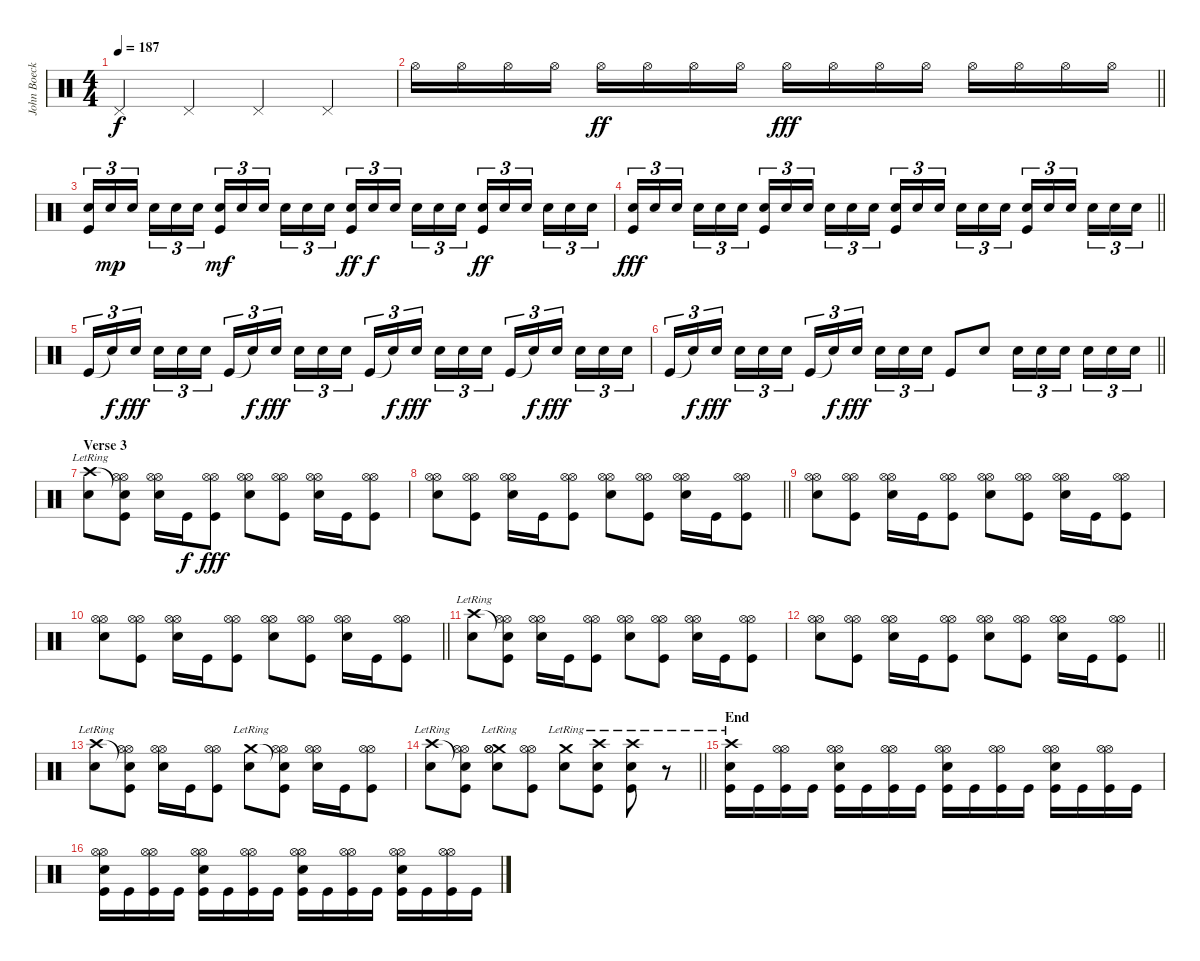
\track ("John Boecklin - Drums" "John Boeck") {instrument percussion}
\staff {score}
\articulation defaults
\ts (4 4)
\tempo 187
\clef neutral
\ks c "Pedal Hi-Hat (hit)".4{dy f} "Pedal Hi-Hat (hit)".4 "Pedal Hi-Hat (hit)".4 "Pedal Hi-Hat (hit)".4
|
\barLineRight lightlight "Hi-Hat (open)".16 "Hi-Hat (open)".16 "Hi-Hat (open)".16 "Hi-Hat (open)".16 "Hi-Hat (open)".16{dy ff} "Hi-Hat (open)".16 "Hi-Hat (open)".16 "Hi-Hat (open)".16 "Hi-Hat (open)".16{dy fff} "Hi-Hat (open)".16 "Hi-Hat (open)".16 "Hi-Hat (open)".16 "Hi-Hat (open)".16 "Hi-Hat (open)".16 "Hi-Hat (open)".16 "Hi-Hat (open)".16
|
("Snare (hit) 2" "Kick (hit)").16{tu (3 2)} "Snare (hit) 2".16{tu (3 2) dy mp} "Snare (hit) 2".16{tu (3 2)} "Snare (hit) 2".16{tu (3 2)} "Snare (hit) 2".16{tu (3 2)} "Snare (hit) 2".16{tu (3 2)} ("Snare (hit) 2" "Kick (hit)").16{tu (3 2) dy mf} "Snare (hit) 2".16{tu (3 2)} "Snare (hit) 2".16{tu (3 2)} "Snare (hit) 2".16{tu (3 2)} "Snare (hit) 2".16{tu (3 2)} "Snare (hit) 2".16{tu (3 2)} ("Snare (hit) 2" "Kick (hit)").16{tu (3 2) dy ff} "Snare (hit) 2".16{tu (3 2) dy f} "Snare (hit) 2".16{tu (3 2)} "Snare (hit) 2".16{tu (3 2)} "Snare (hit) 2".16{tu (3 2)} "Snare (hit) 2".16{tu (3 2)} ("Snare (hit) 2" "Kick (hit)").16{tu (3 2) dy ff} "Snare (hit) 2".16{tu (3 2)} "Snare (hit) 2".16{tu (3 2)} "Snare (hit) 2".16{tu (3 2)} "Snare (hit) 2".16{tu (3 2)} "Snare (hit) 2".16{tu (3 2)} |
\barLineRight lightlight
("Snare (hit) 2" "Kick (hit)").16{tu (3 2) dy fff} "Snare (hit) 2".16{tu (3 2)} "Snare (hit) 2".16{tu (3 2)} "Snare (hit) 2".16{tu (3 2)} "Snare (hit) 2".16{tu (3 2)} "Snare (hit) 2".16{tu (3 2)} ("Snare (hit) 2" "Kick (hit)").16{tu (3 2)} "Snare (hit) 2".16{tu (3 2)} "Snare (hit) 2".16{tu (3 2)} "Snare (hit) 2".16{tu (3 2)} "Snare (hit) 2".16{tu (3 2)} "Snare (hit) 2".16{tu (3 2)} ("Snare (hit) 2" "Kick (hit)").16{tu (3 2)} "Snare (hit) 2".16{tu (3 2)} "Snare (hit) 2".16{tu (3 2)} "Snare (hit) 2".16{tu (3 2)} "Snare (hit) 2".16{tu (3 2)} "Snare (hit) 2".16{tu (3 2)} ("Snare (hit) 2" "Kick (hit)").16{tu (3 2)} "Snare (hit) 2".16{tu (3 2)} "Snare (hit) 2".16{tu (3 2)} "Snare (hit) 2".16{tu (3 2)} "Snare (hit) 2".16{tu (3 2)} "Snare (hit) 2".16{tu (3 2)} |
"Kick (hit)".16{tu (3 2)} "Snare (hit)"{t}.16{tu (3 2) dy f} "Snare (hit) 2".16{tu (3 2) dy fff} "Snare (hit) 2".16{tu (3 2)} "Snare (hit) 2".16{tu (3 2)} "Snare (hit) 2".16{tu (3 2)} "Kick (hit)".16{tu (3 2)} "Snare (hit)"{t}.16{tu (3 2) dy f} "Snare (hit) 2".16{tu (3 2) dy fff} "Snare (hit) 2".16{tu (3 2)} "Snare (hit) 2".16{tu (3 2)} "Snare (hit) 2".16{tu (3 2)} "Kick (hit)".16{tu (3 2)} "Snare (hit)"{t}.16{tu (3 2) dy f} "Snare (hit) 2".16{tu (3 2) dy fff} "Snare (hit) 2".16{tu (3 2)} "Snare (hit) 2".16{tu (3 2)} "Snare (hit) 2".16{tu (3 2)} "Kick (hit)".16{tu (3 2)} "Snare (hit)"{t}.16{tu (3 2) dy f} "Snare (hit) 2".16{tu (3 2) dy fff} "Snare (hit) 2".16{tu (3 2)} "Snare (hit) 2".16{tu (3 2)} "Snare (hit) 2".16{tu (3 2)} |
\barLineRight lightlight "Kick (hit)".16{tu (3 2)} "Snare (hit)"{t}.16{tu (3 2) dy f} "Snare (hit) 2".16{tu (3 2) dy fff} "Snare (hit) 2".16{tu (3 2)} "Snare (hit) 2".16{tu (3 2)} "Snare (hit) 2".16{tu (3 2)} "Kick (hit)".16{tu (3 2)} "Snare (hit)"{t}.16{tu (3 2) dy f} "Snare (hit) 2".16{tu (3 2) dy fff} "Snare (hit) 2".16{tu (3 2)} "Snare (hit) 2".16{tu (3 2)} "Snare (hit) 2".16{tu (3 2)} "Kick (hit)".8 "Snare (hit) 2".8 "Snare (hit) 2".16{tu (3 2)} "Snare (hit) 2".16{tu (3 2)} "Snare (hit) 2".16{tu (3 2)} "Snare (hit) 2".16{tu (3 2)} "Snare (hit) 2".16{tu (3 2)} "Snare (hit) 2".16{tu (3 2)}
|
\section ("" "Verse 3")
("Crash high (hit)"{lr} "Snare (hit) 2").8 ("Snare (hit)"{t} "Hi-Hat (open)" "Hi-Hat (open)" "Kick (hit)").8 ("Snare (hit) 2" "Hi-Hat (open)" "Hi-Hat (open)").16 "Kick (hit)".16{dy f} ("Hi-Hat (open)" "Hi-Hat (open)" "Kick (hit)").8{dy fff} ("Snare (hit) 2" "Hi-Hat (open)" "Hi-Hat (open)").8 ("Hi-Hat (open)" "Hi-Hat (open)" "Kick (hit)").8 ("Snare (hit) 2" "Hi-Hat (open)" "Hi-Hat (open)").16 "Kick (hit)".16 ("Hi-Hat (open)" "Hi-Hat (open)" "Kick (hit)").8 |
\barLineRight lightlight
("Snare (hit) 2" "Hi-Hat (open)" "Hi-Hat (open)").8 ("Hi-Hat (open)" "Hi-Hat (open)" "Kick (hit)").8 ("Snare (hit) 2" "Hi-Hat (open)" "Hi-Hat (open)").16 "Kick (hit)".16 ("Hi-Hat (open)" "Hi-Hat (open)" "Kick (hit)").8 ("Snare (hit) 2" "Hi-Hat (open)" "Hi-Hat (open)").8 ("Hi-Hat (open)" "Hi-Hat (open)" "Kick (hit)").8 ("Snare (hit) 2" "Hi-Hat (open)" "Hi-Hat (open)").16 "Kick (hit)".16 ("Hi-Hat (open)" "Hi-Hat (open)" "Kick (hit)").8 |
("Snare (hit) 2" "Hi-Hat (open)" "Hi-Hat (open)").8 ("Hi-Hat (open)" "Hi-Hat (open)" "Kick (hit)").8 ("Snare (hit) 2" "Hi-Hat (open)" "Hi-Hat (open)").16 "Kick (hit)".16 ("Hi-Hat (open)" "Hi-Hat (open)" "Kick (hit)").8 ("Snare (hit) 2" "Hi-Hat (open)" "Hi-Hat (open)").8 ("Hi-Hat (open)" "Hi-Hat (open)" "Kick (hit)").8 ("Snare (hit) 2" "Hi-Hat (open)" "Hi-Hat (open)").16 "Kick (hit)".16 ("Hi-Hat (open)" "Hi-Hat (open)" "Kick (hit)").8 |
\barLineRight lightlight
("Snare (hit) 2" "Hi-Hat (open)" "Hi-Hat (open)").8 ("Hi-Hat (open)" "Hi-Hat (open)" "Kick (hit)").8 ("Snare (hit) 2" "Hi-Hat (open)" "Hi-Hat (open)").16 "Kick (hit)".16 ("Hi-Hat (open)" "Hi-Hat (open)" "Kick (hit)").8 ("Snare (hit) 2" "Hi-Hat (open)" "Hi-Hat (open)").8 ("Hi-Hat (open)" "Hi-Hat (open)" "Kick (hit)").8 ("Snare (hit) 2" "Hi-Hat (open)" "Hi-Hat (open)").16 "Kick (hit)".16 ("Hi-Hat (open)" "Hi-Hat (open)" "Kick (hit)").8 |
("Crash high (hit)"{lr} "Snare (hit) 2").8 ("Snare (hit)"{t} "Hi-Hat (open)" "Hi-Hat (open)" "Kick (hit)").8 ("Snare (hit) 2" "Hi-Hat (open)" "Hi-Hat (open)").16 "Kick (hit)".16 ("Hi-Hat (open)" "Hi-Hat (open)" "Kick (hit)").8 ("Snare (hit) 2" "Hi-Hat (open)" "Hi-Hat (open)").8 ("Hi-Hat (open)" "Hi-Hat (open)" "Kick (hit)").8 ("Snare (hit) 2" "Hi-Hat (open)" "Hi-Hat (open)").16 "Kick (hit)".16 ("Hi-Hat (open)" "Hi-Hat (open)" "Kick (hit)").8 |
\barLineRight lightlight
("Snare (hit) 2" "Hi-Hat (open)" "Hi-Hat (open)").8 ("Hi-Hat (open)" "Hi-Hat (open)" "Kick (hit)").8 ("Snare (hit) 2" "Hi-Hat (open)" "Hi-Hat (open)").16 "Kick (hit)".16 ("Hi-Hat (open)" "Hi-Hat (open)" "Kick (hit)").8 ("Snare (hit) 2" "Hi-Hat (open)" "Hi-Hat (open)").8 ("Hi-Hat (open)" "Hi-Hat (open)" "Kick (hit)").8 ("Snare (hit) 2" "Hi-Hat (open)" "Hi-Hat (open)").16 "Kick (hit)".16 ("Hi-Hat (open)" "Hi-Hat (open)" "Kick (hit)").8 |
("Crash high (hit)"{lr} "Snare (hit) 2").8 ("Snare (hit)"{t} "Hi-Hat (open)" "Hi-Hat (open)" "Kick (hit)").8 ("Snare (hit) 2" "Hi-Hat (open)" "Hi-Hat (open)").16 "Kick (hit)".16 ("Hi-Hat (open)" "Hi-Hat (open)" "Kick (hit)").8 ("Crash medium (hit)"{lr} "Snare (hit) 2").8 ("Snare (hit)"{t} "Hi-Hat (open)" "Hi-Hat (open)" "Kick (hit)").8 ("Snare (hit) 2" "Hi-Hat (open)" "Hi-Hat (open)").16 "Kick (hit)".16 ("Hi-Hat (open)" "Hi-Hat (open)" "Kick (hit)").8 |
\barLineRight lightlight
("Crash high (hit)"{lr} "Snare (hit) 2").8 ("Snare (hit)"{t} "Hi-Hat (open)" "Hi-Hat (open)" "Kick (hit)").8 ("Crash medium (hit)"{lr} "Snare (hit) 2" "Hi-Hat (open)" "Hi-Hat (open)").8 ("Hi-Hat (open)" "Hi-Hat (open)" "Kick (hit)").8 ("Crash medium (hit)"{lr} "Snare (hit) 2").8 ("Crash high (hit)"{lr} "Snare (hit) 2" "Kick (hit)").8 ("Crash high (hit)"{lr} "Snare (hit) 2" "Kick (hit)").8 r.8 |
\section ("" "End")
("Crash high (hit)"{lr} "Snare (hit) 2" "Kick (hit)").16 "Kick (hit)".16 ("Hi-Hat (open)" "Hi-Hat (open)" "Kick (hit)").16 "Kick (hit)".16 ("Snare (hit) 2" "Hi-Hat (open)" "Hi-Hat (open)" "Kick (hit)").16 "Kick (hit)".16 ("Hi-Hat (open)" "Hi-Hat (open)" "Kick (hit)").16 "Kick (hit)".16 ("Snare (hit) 2" "Hi-Hat (open)" "Hi-Hat (open)" "Kick (hit)").16 "Kick (hit)".16 ("Hi-Hat (open)" "Hi-Hat (open)" "Kick (hit)").16 "Kick (hit)".16 ("Snare (hit) 2" "Hi-Hat (open)" "Hi-Hat (open)" "Kick (hit)").16 "Kick (hit)".16 ("Hi-Hat (open)" "Hi-Hat (open)" "Kick (hit)").16 "Kick (hit)".16 |
("Snare (hit) 2" "Hi-Hat (open)" "Hi-Hat (open)" "Kick (hit)").16 "Kick (hit)".16 ("Hi-Hat (open)" "Hi-Hat (open)" "Kick (hit)").16 "Kick (hit)".16 ("Snare (hit) 2" "Hi-Hat (open)" "Hi-Hat (open)" "Kick (hit)").16 "Kick (hit)".16 ("Hi-Hat (open)" "Hi-Hat (open)" "Kick (hit)").16 "Kick (hit)".16 ("Snare (hit) 2" "Hi-Hat (open)" "Hi-Hat (open)" "Kick (hit)").16 "Kick (hit)".16 ("Hi-Hat (open)" "Hi-Hat (open)" "Kick (hit)").16 "Kick (hit)".16 ("Snare (hit) 2" "Hi-Hat (open)" "Hi-Hat (open)" "Kick (hit)").16 "Kick (hit)".16 ("Hi-Hat (open)" "Hi-Hat (open)" "Kick (hit)").16 "Kick (hit)".16
